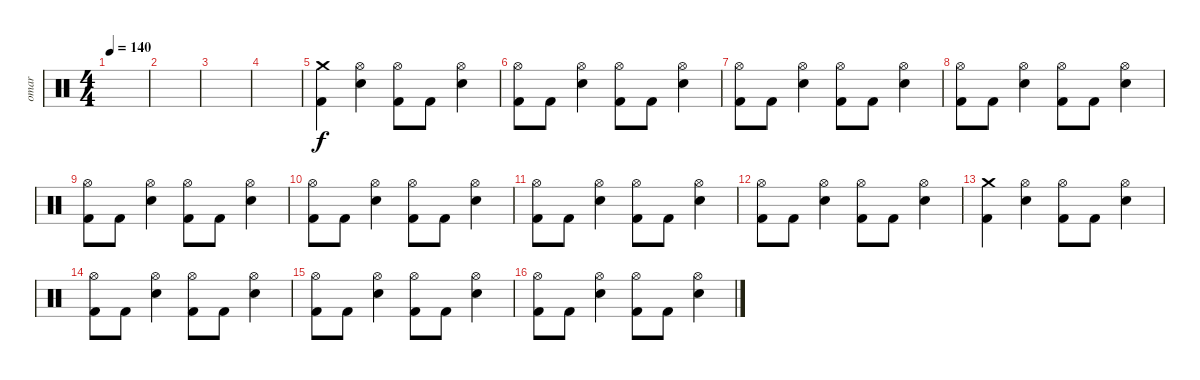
\track ("omar" "omar") {instrument percussion}
\staff {score}
\articulation defaults
\ts (4 4)
\tempo 140
\clef neutral
\ks c
|
|
|
|
("Crash medium (hit)" "Kick (hit) 2").4 ("Hi-Hat (open)" "Electric Snare (hit)").4 ("Hi-Hat (open)" "Kick (hit) 2").8 "Kick (hit) 2".8 ("Hi-Hat (open)" "Electric Snare (hit)").4 |
("Hi-Hat (open)" "Kick (hit) 2").8 "Kick (hit) 2".8 ("Hi-Hat (open)" "Electric Snare (hit)").4 ("Hi-Hat (open)" "Kick (hit) 2").8 "Kick (hit) 2".8 ("Hi-Hat (open)" "Electric Snare (hit)").4 |
("Hi-Hat (open)" "Kick (hit) 2").8 "Kick (hit) 2".8 ("Hi-Hat (open)" "Electric Snare (hit)").4 ("Hi-Hat (open)" "Kick (hit) 2").8 "Kick (hit) 2".8 ("Hi-Hat (open)" "Electric Snare (hit)").4 |
("Hi-Hat (open)" "Kick (hit) 2").8 "Kick (hit) 2".8 ("Hi-Hat (open)" "Electric Snare (hit)").4 ("Hi-Hat (open)" "Kick (hit) 2").8 "Kick (hit) 2".8 ("Hi-Hat (open)" "Electric Snare (hit)").4 |
("Hi-Hat (open)" "Kick (hit) 2").8 "Kick (hit) 2".8 ("Hi-Hat (open)" "Electric Snare (hit)").4 ("Hi-Hat (open)" "Kick (hit) 2").8 "Kick (hit) 2".8 ("Hi-Hat (open)" "Electric Snare (hit)").4 |
("Hi-Hat (open)" "Kick (hit) 2").8 "Kick (hit) 2".8 ("Hi-Hat (open)" "Electric Snare (hit)").4 ("Hi-Hat (open)" "Kick (hit) 2").8 "Kick (hit) 2".8 ("Hi-Hat (open)" "Electric Snare (hit)").4 |
("Hi-Hat (open)" "Kick (hit) 2").8 "Kick (hit) 2".8 ("Hi-Hat (open)" "Electric Snare (hit)").4 ("Hi-Hat (open)" "Kick (hit) 2").8 "Kick (hit) 2".8 ("Hi-Hat (open)" "Electric Snare (hit)").4 |
("Hi-Hat (open)" "Kick (hit) 2").8 "Kick (hit) 2".8 ("Hi-Hat (open)" "Electric Snare (hit)").4 ("Hi-Hat (open)" "Kick (hit) 2").8 "Kick (hit) 2".8 ("Hi-Hat (open)" "Electric Snare (hit)").4 |
("Crash medium (hit)" "Kick (hit) 2").4 ("Hi-Hat (open)" "Electric Snare (hit)").4 ("Hi-Hat (open)" "Kick (hit) 2").8 "Kick (hit) 2".8 ("Hi-Hat (open)" "Electric Snare (hit)").4 |
("Hi-Hat (open)" "Kick (hit) 2").8 "Kick (hit) 2".8 ("Hi-Hat (open)" "Electric Snare (hit)").4 ("Hi-Hat (open)" "Kick (hit) 2").8 "Kick (hit) 2".8 ("Hi-Hat (open)" "Electric Snare (hit)").4 |
("Hi-Hat (open)" "Kick (hit) 2").8 "Kick (hit) 2".8 ("Hi-Hat (open)" "Electric Snare (hit)").4 ("Hi-Hat (open)" "Kick (hit) 2").8 "Kick (hit) 2".8 ("Hi-Hat (open)" "Electric Snare (hit)").4 |
("Hi-Hat (open)" "Kick (hit) 2").8 "Kick (hit) 2".8 ("Hi-Hat (open)" "Electric Snare (hit)").4 ("Hi-Hat (open)" "Kick (hit) 2").8 "Kick (hit) 2".8 ("Hi-Hat (open)" "Electric Snare (hit)").4
